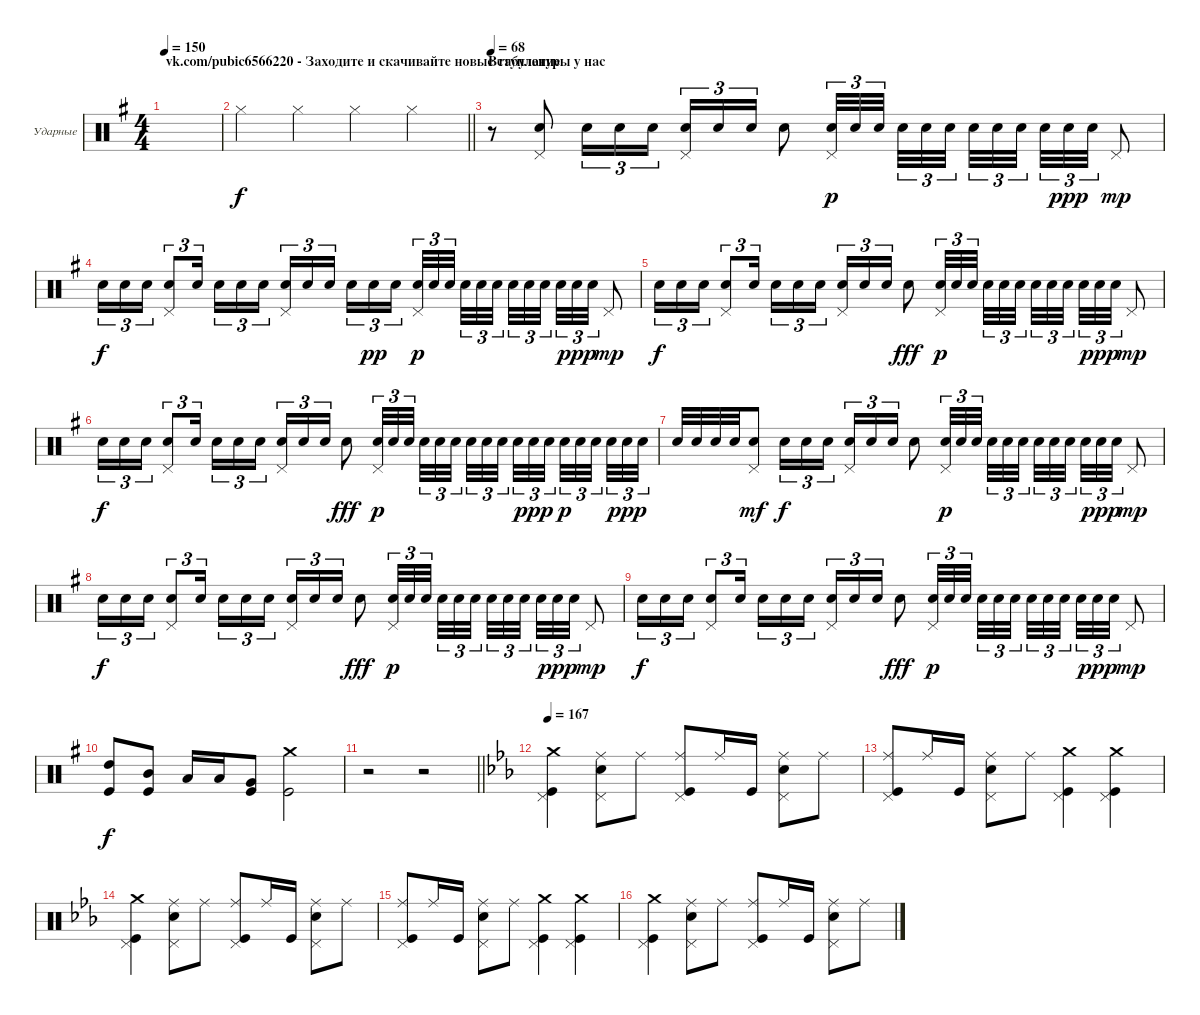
\bracketExtendMode groupsimilarinstruments
\firstSystemTrackNameOrientation horizontal
\otherSystemsTrackNameOrientation horizontal
\track ("Максим Удалов" "Ударные") {instrument percussion}
\staff {score}
\articulation defaults
\ts (4 4)
\section ("" "vk.com/pubic6566220 - Заходите и скачивайте новые табулатуры у нас")
\tempo 150
\clef neutral
\ks eminor
|
\beaming (8 2 2 2 2)
\barLineRight lightlight "Hi-Hat (closed)".4 "Hi-Hat (closed)".4 "Hi-Hat (closed)".4 "Hi-Hat (closed)".4
|
\section ("" "Вступление")
\tempo 68
r.8 ("Snare (hit) 2" "Pedal Hi-Hat (hit)").8 "Snare (hit) 2".16{tu (3 2) dy f} "Snare (hit) 2".16{tu (3 2)} "Snare (hit) 2".16{tu (3 2)} ("Snare (hit) 2" "Pedal Hi-Hat (hit)").16{tu (3 2)} "Snare (hit) 2".16{tu (3 2)} "Snare (hit) 2".16{tu (3 2)} "Snare (hit) 2".8 ("Snare (hit) 2" "Pedal Hi-Hat (hit)").32{tu (3 2) dy p} "Snare (hit) 2".32{tu (3 2)} "Snare (hit) 2".32{tu (3 2)} "Snare (hit) 2".32{tu (3 2)} "Snare (hit) 2".32{tu (3 2)} "Snare (hit) 2".32{tu (3 2)} "Snare (hit) 2".32{tu (3 2)} "Snare (hit) 2".32{tu (3 2)} "Snare (hit) 2".32{tu (3 2)} "Snare (hit) 2".32{tu (3 2)} "Snare (hit) 2".32{tu (3 2) dy ppp} "Snare (hit) 2".32{tu (3 2)} "Pedal Hi-Hat (hit)".8{dy mp} |
"Snare (hit) 2".16{tu (3 2) dy f} "Snare (hit) 2".16{tu (3 2)} "Snare (hit) 2".16{tu (3 2)} ("Snare (hit) 2" "Pedal Hi-Hat (hit)").8{tu (3 2)} "Snare (hit) 2".16{tu (3 2)} "Snare (hit) 2".16{tu (3 2)} "Snare (hit) 2".16{tu (3 2)} "Snare (hit) 2".16{tu (3 2)} ("Snare (hit) 2" "Pedal Hi-Hat (hit)").16{tu (3 2)} "Snare (hit) 2".16{tu (3 2)} "Snare (hit) 2".16{tu (3 2)} "Snare (hit) 2".16{tu (3 2)} "Snare (hit) 2".16{tu (3 2) dy pp} "Snare (hit) 2".16{tu (3 2)} ("Snare (hit) 2" "Pedal Hi-Hat (hit)").32{tu (3 2) dy p} "Snare (hit) 2".32{tu (3 2)} "Snare (hit) 2".32{tu (3 2)} "Snare (hit) 2".32{tu (3 2)} "Snare (hit) 2".32{tu (3 2)} "Snare (hit) 2".32{tu (3 2)} "Snare (hit) 2".32{tu (3 2)} "Snare (hit) 2".32{tu (3 2)} "Snare (hit) 2".32{tu (3 2)} "Snare (hit) 2".32{tu (3 2)} "Snare (hit) 2".32{tu (3 2) dy ppp} "Snare (hit) 2".32{tu (3 2)} "Pedal Hi-Hat (hit)".8{dy mp} |
"Snare (hit) 2".16{tu (3 2) dy f} "Snare (hit) 2".16{tu (3 2)} "Snare (hit) 2".16{tu (3 2)} ("Snare (hit) 2" "Pedal Hi-Hat (hit)").8{tu (3 2)} "Snare (hit) 2".16{tu (3 2)} "Snare (hit) 2".16{tu (3 2)} "Snare (hit) 2".16{tu (3 2)} "Snare (hit) 2".16{tu (3 2)} ("Snare (hit) 2" "Pedal Hi-Hat (hit)").16{tu (3 2)} "Snare (hit) 2".16{tu (3 2)} "Snare (hit) 2".16{tu (3 2)} "Snare (hit) 2".8{dy fff} ("Snare (hit) 2" "Pedal Hi-Hat (hit)").32{tu (3 2) dy p} "Snare (hit) 2".32{tu (3 2)} "Snare (hit) 2".32{tu (3 2)} "Snare (hit) 2".32{tu (3 2)} "Snare (hit) 2".32{tu (3 2)} "Snare (hit) 2".32{tu (3 2)} "Snare (hit) 2".32{tu (3 2)} "Snare (hit) 2".32{tu (3 2)} "Snare (hit) 2".32{tu (3 2)} "Snare (hit) 2".32{tu (3 2)} "Snare (hit) 2".32{tu (3 2) dy ppp} "Snare (hit) 2".32{tu (3 2)} "Pedal Hi-Hat (hit)".8{dy mp} |
"Snare (hit) 2".16{tu (3 2) dy f} "Snare (hit) 2".16{tu (3 2)} "Snare (hit) 2".16{tu (3 2)} ("Snare (hit) 2" "Pedal Hi-Hat (hit)").8{tu (3 2)} "Snare (hit) 2".16{tu (3 2)} "Snare (hit) 2".16{tu (3 2)} "Snare (hit) 2".16{tu (3 2)} "Snare (hit) 2".16{tu (3 2)} ("Snare (hit) 2" "Pedal Hi-Hat (hit)").16{tu (3 2)} "Snare (hit) 2".16{tu (3 2)} "Snare (hit) 2".16{tu (3 2)} "Snare (hit) 2".8{dy fff} ("Snare (hit) 2" "Pedal Hi-Hat (hit)").32{tu (3 2) dy p} "Snare (hit) 2".32{tu (3 2)} "Snare (hit) 2".32{tu (3 2)} "Snare (hit) 2".32{tu (3 2)} "Snare (hit) 2".32{tu (3 2)} "Snare (hit) 2".32{tu (3 2)} "Snare (hit) 2".32{tu (3 2)} "Snare (hit) 2".32{tu (3 2)} "Snare (hit) 2".32{tu (3 2)} "Snare (hit) 2".32{tu (3 2)} "Snare (hit) 2".32{tu (3 2) dy ppp} "Snare (hit) 2".32{tu (3 2)} "Snare (hit) 2".32{tu (3 2) dy p} "Snare (hit) 2".32{tu (3 2)} "Snare (hit) 2".32{tu (3 2)} "Snare (hit) 2".32{tu (3 2)} "Snare (hit) 2".32{tu (3 2) dy ppp} "Snare (hit) 2".32{tu (3 2)} |
"Snare (hit) 2".32 "Snare (hit) 2".32 "Snare (hit) 2".32 "Snare (hit) 2".32 ("Snare (hit) 2" "Pedal Hi-Hat (hit)").8{dy mf} "Snare (hit) 2".16{tu (3 2) dy f} "Snare (hit) 2".16{tu (3 2)} "Snare (hit) 2".16{tu (3 2)} ("Snare (hit) 2" "Pedal Hi-Hat (hit)").16{tu (3 2)} "Snare (hit) 2".16{tu (3 2)} "Snare (hit) 2".16{tu (3 2)} "Snare (hit) 2".8 ("Snare (hit) 2" "Pedal Hi-Hat (hit)").32{tu (3 2) dy p} "Snare (hit) 2".32{tu (3 2)} "Snare (hit) 2".32{tu (3 2)} "Snare (hit) 2".32{tu (3 2)} "Snare (hit) 2".32{tu (3 2)} "Snare (hit) 2".32{tu (3 2)} "Snare (hit) 2".32{tu (3 2)} "Snare (hit) 2".32{tu (3 2)} "Snare (hit) 2".32{tu (3 2)} "Snare (hit) 2".32{tu (3 2)} "Snare (hit) 2".32{tu (3 2) dy ppp} "Snare (hit) 2".32{tu (3 2)} "Pedal Hi-Hat (hit)".8{dy mp} |
"Snare (hit) 2".16{tu (3 2) dy f} "Snare (hit) 2".16{tu (3 2)} "Snare (hit) 2".16{tu (3 2)} ("Snare (hit) 2" "Pedal Hi-Hat (hit)").8{tu (3 2)} "Snare (hit) 2".16{tu (3 2)} "Snare (hit) 2".16{tu (3 2)} "Snare (hit) 2".16{tu (3 2)} "Snare (hit) 2".16{tu (3 2)} ("Snare (hit) 2" "Pedal Hi-Hat (hit)").16{tu (3 2)} "Snare (hit) 2".16{tu (3 2)} "Snare (hit) 2".16{tu (3 2)} "Snare (hit) 2".8{dy fff} ("Snare (hit) 2" "Pedal Hi-Hat (hit)").32{tu (3 2) dy p} "Snare (hit) 2".32{tu (3 2)} "Snare (hit) 2".32{tu (3 2)} "Snare (hit) 2".32{tu (3 2)} "Snare (hit) 2".32{tu (3 2)} "Snare (hit) 2".32{tu (3 2)} "Snare (hit) 2".32{tu (3 2)} "Snare (hit) 2".32{tu (3 2)} "Snare (hit) 2".32{tu (3 2)} "Snare (hit) 2".32{tu (3 2)} "Snare (hit) 2".32{tu (3 2) dy ppp} "Snare (hit) 2".32{tu (3 2)} "Pedal Hi-Hat (hit)".8{dy mp} |
"Snare (hit) 2".16{tu (3 2) dy f} "Snare (hit) 2".16{tu (3 2)} "Snare (hit) 2".16{tu (3 2)} ("Snare (hit) 2" "Pedal Hi-Hat (hit)").8{tu (3 2)} "Snare (hit) 2".16{tu (3 2)} "Snare (hit) 2".16{tu (3 2)} "Snare (hit) 2".16{tu (3 2)} "Snare (hit) 2".16{tu (3 2)} ("Snare (hit) 2" "Pedal Hi-Hat (hit)").16{tu (3 2)} "Snare (hit) 2".16{tu (3 2)} "Snare (hit) 2".16{tu (3 2)} "Snare (hit) 2".8{dy fff} ("Snare (hit) 2" "Pedal Hi-Hat (hit)").32{tu (3 2) dy p} "Snare (hit) 2".32{tu (3 2)} "Snare (hit) 2".32{tu (3 2)} "Snare (hit) 2".32{tu (3 2)} "Snare (hit) 2".32{tu (3 2)} "Snare (hit) 2".32{tu (3 2)} "Snare (hit) 2".32{tu (3 2)} "Snare (hit) 2".32{tu (3 2)} "Snare (hit) 2".32{tu (3 2)} "Snare (hit) 2".32{tu (3 2)} "Snare (hit) 2".32{tu (3 2) dy ppp} "Snare (hit) 2".32{tu (3 2)} "Pedal Hi-Hat (hit)".8{dy mp} |
("High Tom (hit)" "Kick (hit)").8{dy f} ("Mid Tom (hit)" "Kick (hit)").8 "Low Tom (hit)".16 "Low Tom (hit)".16 ("Kick (hit)" "Very Low Tom (hit)").8 ("Kick (hit)" "Crash medium (hit)").2 |
\barLineRight lightlight
r.2 r.2 |
\tempo 167
\ks cminor
("Kick (hit)" "Crash medium (hit)" "Pedal Hi-Hat (hit)").4 ("Snare (hit) 2" "Ride (middle)" "Pedal Hi-Hat (hit)").8 "Ride (middle)".8 ("Kick (hit)" "Ride (middle)" "Pedal Hi-Hat (hit)").8 "Ride (middle)".16 "Kick (hit)".16 ("Snare (hit) 2" "Pedal Hi-Hat (hit)" "Ride (middle)").8 "Ride (middle)".8 |
("Kick (hit)" "Ride (middle)" "Pedal Hi-Hat (hit)").8 "Ride (middle)".16 "Kick (hit)".16 ("Snare (hit) 2" "Ride (middle)" "Pedal Hi-Hat (hit)").8 "Ride (middle)".8 ("Kick (hit)" "Crash medium (hit)" "Pedal Hi-Hat (hit)").4 ("Crash medium (hit)" "Kick (hit)" "Pedal Hi-Hat (hit)").4 |
("Kick (hit)" "Crash medium (hit)" "Pedal Hi-Hat (hit)").4 ("Snare (hit) 2" "Ride (middle)" "Pedal Hi-Hat (hit)").8 "Ride (middle)".8 ("Kick (hit)" "Ride (middle)" "Pedal Hi-Hat (hit)").8 "Ride (middle)".16 "Kick (hit)".16 ("Snare (hit) 2" "Pedal Hi-Hat (hit)" "Ride (middle)").8 "Ride (middle)".8 |
("Kick (hit)" "Ride (middle)" "Pedal Hi-Hat (hit)").8 "Ride (middle)".16 "Kick (hit)".16 ("Snare (hit) 2" "Ride (middle)" "Pedal Hi-Hat (hit)").8 "Ride (middle)".8 ("Kick (hit)" "Crash medium (hit)" "Pedal Hi-Hat (hit)").4 ("Crash medium (hit)" "Kick (hit)" "Pedal Hi-Hat (hit)").4 |
("Kick (hit)" "Crash medium (hit)" "Pedal Hi-Hat (hit)").4 ("Snare (hit) 2" "Ride (middle)" "Pedal Hi-Hat (hit)").8 "Ride (middle)".8 ("Kick (hit)" "Ride (middle)" "Pedal Hi-Hat (hit)").8 "Ride (middle)".16 "Kick (hit)".16 ("Snare (hit) 2" "Pedal Hi-Hat (hit)" "Ride (middle)").8 "Ride (middle)".8
